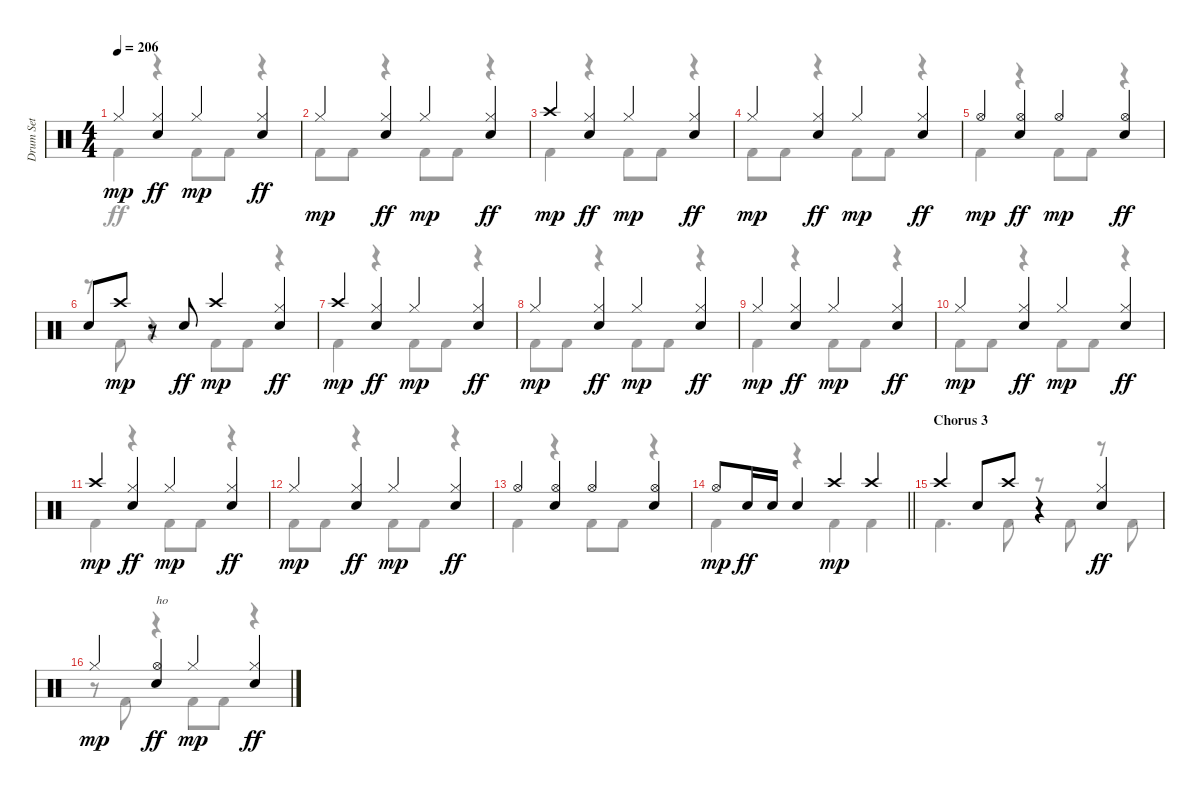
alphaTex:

\track ("Drum Set" "Drum Set") {instrument percussion}
\staff {score}
\articulation defaults
\voice
\ts (4 4)
\tempo 206
\clef neutral
\ks c "Hi-Hat (closed)".4{dy mp}
("Hi-Hat (closed)" "Electric Snare (hit)").4{dy ff} "Hi-Hat (closed)".4{dy mp} ("Hi-Hat (closed)" "Electric Snare (hit)").4{dy ff} |
"Hi-Hat (closed)".4{dy mp} ("Hi-Hat (closed)" "Electric Snare (hit)").4{dy ff} "Hi-Hat (closed)".4{dy mp} ("Hi-Hat (closed)" "Electric Snare (hit)").4{dy ff} |
"Crash high (hit)".4{dy mp} ("Hi-Hat (closed)" "Electric Snare (hit)").4{dy ff} "Hi-Hat (closed)".4{dy mp} ("Hi-Hat (closed)" "Electric Snare (hit)").4{dy ff} |
"Hi-Hat (closed)".4{dy mp} ("Hi-Hat (closed)" "Electric Snare (hit)").4{dy ff} "Hi-Hat (closed)".4{dy mp} ("Hi-Hat (closed)" "Electric Snare (hit)").4{dy ff} |
"Hi-Hat (open)".4{dy mp} ("Hi-Hat (open)" "Electric Snare (hit)").4{dy ff} "Hi-Hat (open)".4{dy mp} ("Hi-Hat (open)" "Electric Snare (hit)").4{dy ff} |
"Electric Snare (hit)".8 "Crash high (hit)".8{dy mp} r.8 "Electric Snare (hit)".8{dy ff} "Crash high (hit)".4{dy mp} ("Hi-Hat (closed)" "Electric Snare (hit)").4{dy ff} |
"Crash high (hit)".4{dy mp} ("Hi-Hat (closed)" "Electric Snare (hit)").4{dy ff} "Hi-Hat (closed)".4{dy mp} ("Hi-Hat (closed)" "Electric Snare (hit)").4{dy ff} |
"Hi-Hat (closed)".4{dy mp} ("Hi-Hat (closed)" "Electric Snare (hit)").4{dy ff} "Hi-Hat (closed)".4{dy mp} ("Hi-Hat (closed)" "Electric Snare (hit)").4{dy ff} |
"Hi-Hat (closed)".4{dy mp} ("Hi-Hat (closed)" "Electric Snare (hit)").4{dy ff} "Hi-Hat (closed)".4{dy mp} ("Hi-Hat (closed)" "Electric Snare (hit)").4{dy ff} |
"Hi-Hat (closed)".4{dy mp} ("Hi-Hat (closed)" "Electric Snare (hit)").4{dy ff} "Hi-Hat (closed)".4{dy mp} ("Hi-Hat (closed)" "Electric Snare (hit)").4{dy ff} |
"Crash high (hit)".4{dy mp} ("Hi-Hat (closed)" "Electric Snare (hit)").4{dy ff} "Hi-Hat (closed)".4{dy mp} ("Hi-Hat (closed)" "Electric Snare (hit)").4{dy ff} |
"Hi-Hat (closed)".4{dy mp} ("Hi-Hat (closed)" "Electric Snare (hit)").4{dy ff} "Hi-Hat (closed)".4{dy mp} ("Hi-Hat (closed)" "Electric Snare (hit)").4{dy ff} |
"Hi-Hat (open)".4 ("Hi-Hat (open)" "Electric Snare (hit)").4 "Hi-Hat (open)".4 ("Hi-Hat (open)" "Electric Snare (hit)").4 |
\barLineRight lightlight "Hi-Hat (open)".8{dy mp} "Electric Snare (hit)".16{dy ff} "Electric Snare (hit)".16 "Electric Snare (hit)".4 "Crash high (hit)".4{dy mp} "Crash high (hit)".4
|
\section ("" "Chorus 3")
"Crash high (hit)".4 "Electric Snare (hit)".8 "Crash high (hit)".8 r.4 ("Hi-Hat (closed)" "Electric Snare (hit)").4{dy ff} |
"Hi-Hat (closed)".4{dy mp} ("Hi-Hat (open)" "Electric Snare (hit)").4{txt "ho" dy ff} "Hi-Hat (closed)".4{dy mp} ("Hi-Hat (closed)" "Electric Snare (hit)").4{dy ff}
\voice
\clef neutral
\ottava regular
\simile none
\ks c "Kick (hit) 2".4{dy ff}
r.4 "Kick (hit) 2".8 "Kick (hit) 2".8 r.4 |
"Kick (hit) 2".8 "Kick (hit) 2".8 r.4 "Kick (hit) 2".8 "Kick (hit) 2".8 r.4 |
"Kick (hit) 2".4 r.4 "Kick (hit) 2".8 "Kick (hit) 2".8 r.4 |
"Kick (hit) 2".8 "Kick (hit) 2".8 r.4 "Kick (hit) 2".8 "Kick (hit) 2".8 r.4 |
"Kick (hit) 2".4 r.4 "Kick (hit) 2".8 "Kick (hit) 2".8 r.4 |
r.8 "Kick (hit) 2".8 r.4 "Kick (hit) 2".8 "Kick (hit) 2".8 r.4 |
"Kick (hit) 2".4 r.4 "Kick (hit) 2".8 "Kick (hit) 2".8 r.4 |
"Kick (hit) 2".8 "Kick (hit) 2".8 r.4 "Kick (hit) 2".8 "Kick (hit) 2".8 r.4 |
"Kick (hit) 2".4 r.4 "Kick (hit) 2".8 "Kick (hit) 2".8 r.4 |
"Kick (hit) 2".8 "Kick (hit) 2".8 r.4 "Kick (hit) 2".8 "Kick (hit) 2".8 r.4 |
"Kick (hit) 2".4 r.4 "Kick (hit) 2".8 "Kick (hit) 2".8 r.4 |
"Kick (hit) 2".8 "Kick (hit) 2".8 r.4 "Kick (hit) 2".8 "Kick (hit) 2".8 r.4 |
"Kick (hit) 2".4 r.4 "Kick (hit) 2".8 "Kick (hit) 2".8 r.4 |
\barLineRight lightlight "Kick (hit) 2".4
r.4 "Kick (hit) 2".4 "Kick (hit) 2".4 |
"Kick (hit) 2".4{d} "Kick (hit) 2".8 r.8 "Kick (hit) 2".8 r.8 "Kick (hit) 2".8 |
r.8 "Kick (hit) 2".8 r.4 "Kick (hit) 2".8 "Kick (hit) 2".8 r.4
